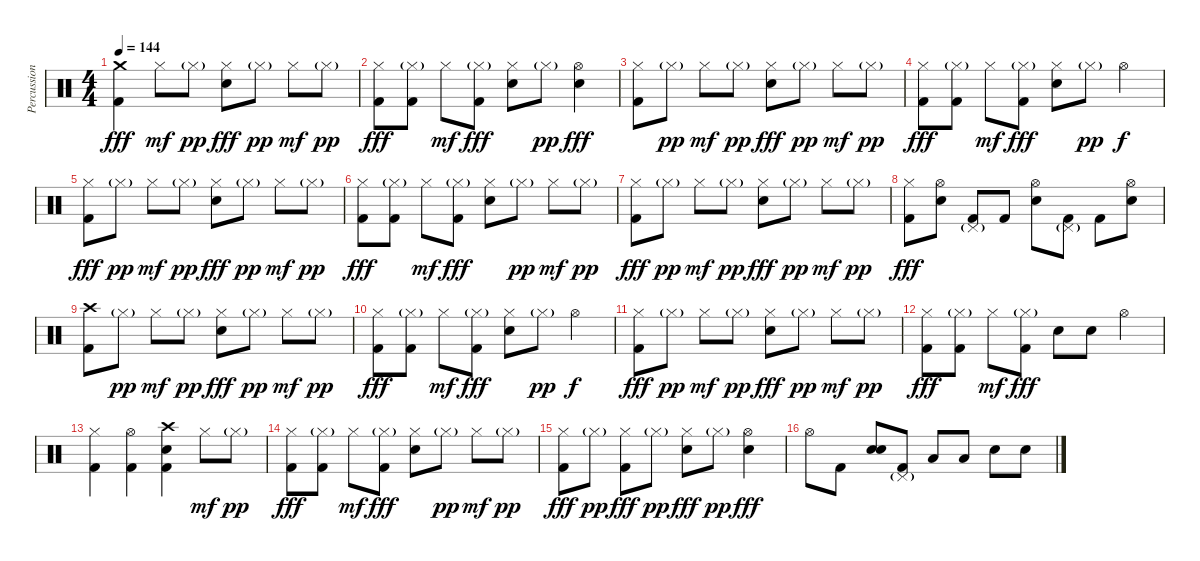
\track ("Percussion" "Percussion") {instrument percussion}
\staff {score}
\articulation defaults
\ts (4 4)
\tempo 144
\clef neutral
\ks c
("Crash medium (hit)" "Kick (hit) 2").4{dy fff} "Hi-Hat (closed)".8{dy mf} "Hi-Hat (closed)"{g}.8{dy pp} ("Hi-Hat (closed)" "Electric Snare (hit)").8{dy fff} "Hi-Hat (closed)"{g}.8{dy pp} "Hi-Hat (closed)".8{dy mf} "Hi-Hat (closed)"{g}.8{dy pp} |
("Hi-Hat (closed)" "Kick (hit) 2").8{dy fff} ("Hi-Hat (closed)"{g} "Kick (hit) 2").8 "Hi-Hat (closed)".8{dy mf} ("Hi-Hat (closed)"{g} "Kick (hit) 2").8{dy fff} ("Hi-Hat (closed)" "Electric Snare (hit)").8 "Hi-Hat (closed)"{g}.8{dy pp} ("Hi-Hat (open)" "Electric Snare (hit)").4{dy fff} |
("Hi-Hat (closed)" "Kick (hit) 2").8 "Hi-Hat (closed)"{g}.8{dy pp} "Hi-Hat (closed)".8{dy mf} "Hi-Hat (closed)"{g}.8{dy pp} ("Hi-Hat (closed)" "Electric Snare (hit)").8{dy fff} "Hi-Hat (closed)"{g}.8{dy pp} "Hi-Hat (closed)".8{dy mf} "Hi-Hat (closed)"{g}.8{dy pp} |
("Hi-Hat (closed)" "Kick (hit) 2").8{dy fff} ("Hi-Hat (closed)"{g} "Kick (hit) 2").8 "Hi-Hat (closed)".8{dy mf} ("Hi-Hat (closed)"{g} "Kick (hit) 2").8{dy fff} ("Hi-Hat (closed)" "Electric Snare (hit)").8 "Hi-Hat (closed)"{g}.8{dy pp} "Hi-Hat (open)".4{dy f} |
("Hi-Hat (closed)" "Kick (hit) 2").8{dy fff} "Hi-Hat (closed)"{g}.8{dy pp} "Hi-Hat (closed)".8{dy mf} "Hi-Hat (closed)"{g}.8{dy pp} ("Hi-Hat (closed)" "Electric Snare (hit)").8{dy fff} "Hi-Hat (closed)"{g}.8{dy pp} "Hi-Hat (closed)".8{dy mf} "Hi-Hat (closed)"{g}.8{dy pp} |
("Hi-Hat (closed)" "Kick (hit) 2").8{dy fff} ("Hi-Hat (closed)"{g} "Kick (hit) 2").8 "Hi-Hat (closed)".8{dy mf} ("Hi-Hat (closed)"{g} "Kick (hit) 2").8{dy fff} ("Hi-Hat (closed)" "Electric Snare (hit)").8 "Hi-Hat (closed)"{g}.8{dy pp} "Hi-Hat (closed)".8{dy mf} "Hi-Hat (closed)"{g}.8{dy pp} |
("Hi-Hat (closed)" "Kick (hit) 2").8{dy fff} "Hi-Hat (closed)"{g}.8{dy pp} "Hi-Hat (closed)".8{dy mf} "Hi-Hat (closed)"{g}.8{dy pp} ("Hi-Hat (closed)" "Electric Snare (hit)").8{dy fff} "Hi-Hat (closed)"{g}.8{dy pp} "Hi-Hat (closed)".8{dy mf} "Hi-Hat (closed)"{g}.8{dy pp} |
("Hi-Hat (closed)" "Kick (hit) 2").8{dy fff} ("Hi-Hat (open)" "Electric Snare (hit)").8 ("Pedal Hi-Hat (hit)"{g} "Kick (hit) 2").8 "Kick (hit) 2".8 ("Hi-Hat (open)" "Electric Snare (hit)").8 ("Pedal Hi-Hat (hit)"{g} "Kick (hit) 2").8 "Kick (hit) 2".8 ("Hi-Hat (open)" "Electric Snare (hit)").8 |
("Crash high (hit)" "Kick (hit) 2").8 "Hi-Hat (closed)"{g}.8{dy pp} "Hi-Hat (closed)".8{dy mf} "Hi-Hat (closed)"{g}.8{dy pp} ("Hi-Hat (closed)" "Electric Snare (hit)").8{dy fff} "Hi-Hat (closed)"{g}.8{dy pp} "Hi-Hat (closed)".8{dy mf} "Hi-Hat (closed)"{g}.8{dy pp} |
("Hi-Hat (closed)" "Kick (hit) 2").8{dy fff} ("Hi-Hat (closed)"{g} "Kick (hit) 2").8 "Hi-Hat (closed)".8{dy mf} ("Hi-Hat (closed)"{g} "Kick (hit) 2").8{dy fff} ("Hi-Hat (closed)" "Electric Snare (hit)").8 "Hi-Hat (closed)"{g}.8{dy pp} "Hi-Hat (open)".4{dy f} |
("Hi-Hat (closed)" "Kick (hit) 2").8{dy fff} "Hi-Hat (closed)"{g}.8{dy pp} "Hi-Hat (closed)".8{dy mf} "Hi-Hat (closed)"{g}.8{dy pp} ("Hi-Hat (closed)" "Electric Snare (hit)").8{dy fff} "Hi-Hat (closed)"{g}.8{dy pp} "Hi-Hat (closed)".8{dy mf} "Hi-Hat (closed)"{g}.8{dy pp} |
("Hi-Hat (closed)" "Kick (hit) 2").8{dy fff} ("Hi-Hat (closed)"{g} "Kick (hit) 2").8 "Hi-Hat (closed)".8{dy mf} ("Hi-Hat (closed)"{g} "Kick (hit) 2").8{dy fff} "Electric Snare (hit)".8 "Electric Snare (hit)".8 "Hi-Hat (open)".4 |
("Hi-Hat (closed)" "Kick (hit) 2").4 ("Hi-Hat (open)" "Kick (hit) 2").4 ("Crash high (hit)" "Kick (hit) 2" "Electric Snare (hit)").4 "Hi-Hat (closed)".8{dy mf} "Hi-Hat (closed)"{g}.8{dy pp} |
("Hi-Hat (closed)" "Kick (hit) 2").8{dy fff} ("Hi-Hat (closed)"{g} "Kick (hit) 2").8 "Hi-Hat (closed)".8{dy mf} ("Hi-Hat (closed)"{g} "Kick (hit) 2").8{dy fff} ("Hi-Hat (closed)" "Electric Snare (hit)").8 "Hi-Hat (closed)"{g}.8{dy pp} "Hi-Hat (closed)".8{dy mf} "Hi-Hat (closed)"{g}.8{dy pp} |
("Hi-Hat (closed)" "Kick (hit) 2").8{dy fff} "Hi-Hat (closed)"{g}.8{dy pp} ("Hi-Hat (closed)" "Kick (hit) 2").8{dy fff} "Hi-Hat (closed)"{g}.8{dy pp} ("Hi-Hat (closed)" "Electric Snare (hit)").8{dy fff} "Hi-Hat (closed)"{g}.8{dy pp} ("Hi-Hat (open)" "Electric Snare (hit)").4{dy fff} |
"Hi-Hat (open)".8 "Kick (hit) 2".8 ("Electric Snare (hit)" "Electric Snare (hit)").8{bd 480} ("Pedal Hi-Hat (hit)"{g} "Kick (hit) 2").8 "Low Tom (hit)".8 "Low Tom (hit)".8 "Electric Snare (hit)".8 "Electric Snare (hit)".8
